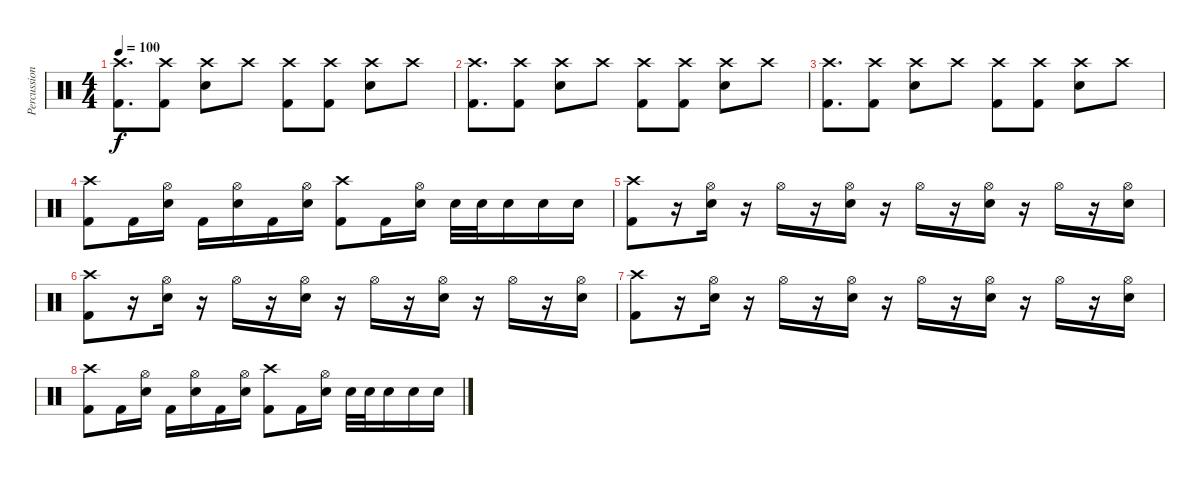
\track ("Percussion" "Percussion") {instrument percussion}
\staff {score}
\articulation defaults
\ts (4 4)
\tempo 100
\clef neutral
\ks c
("Crash high (hit)" "Kick (hit) 2").8{d dy f} ("Crash high (hit)" "Kick (hit) 2").8 ("Crash high (hit)" "Snare (hit) 2").8 "Crash high (hit)".8 ("Crash high (hit)" "Kick (hit) 2").8 ("Crash high (hit)" "Kick (hit) 2").8 ("Crash high (hit)" "Snare (hit) 2").8 "Crash high (hit)".8 |
("Crash high (hit)" "Kick (hit) 2").8{d} ("Crash high (hit)" "Kick (hit) 2").8 ("Crash high (hit)" "Snare (hit) 2").8 "Crash high (hit)".8 ("Crash high (hit)" "Kick (hit) 2").8 ("Crash high (hit)" "Kick (hit) 2").8 ("Crash high (hit)" "Snare (hit) 2").8 "Crash high (hit)".8 |
("Crash high (hit)" "Kick (hit) 2").8{d} ("Crash high (hit)" "Kick (hit) 2").8 ("Crash high (hit)" "Snare (hit) 2").8 "Crash high (hit)".8 ("Crash high (hit)" "Kick (hit) 2").8 ("Crash high (hit)" "Kick (hit) 2").8 ("Crash high (hit)" "Snare (hit) 2").8 "Crash high (hit)".8 |
("Crash high (hit)" "Kick (hit) 2").8 "Kick (hit) 2".16 ("Hi-Hat (open)" "Snare (hit) 2").16 "Kick (hit) 2".16 ("Hi-Hat (open)" "Snare (hit) 2").16 "Kick (hit) 2".16 ("Hi-Hat (open)" "Snare (hit) 2").16 ("Crash high (hit)" "Kick (hit) 2").8 "Kick (hit) 2".16 ("Hi-Hat (open)" "Snare (hit) 2").16 "Snare (hit) 2".32 "Snare (hit) 2".32 "Snare (hit) 2".16 "Snare (hit) 2".16 "Snare (hit) 2".16 |
("Crash high (hit)" "Kick (hit) 2").8 r.16 ("Hi-Hat (open)" "Snare (hit) 2").16 r.16 "Hi-Hat (open)".16 r.16 ("Hi-Hat (open)" "Snare (hit) 2").16 r.16 "Hi-Hat (open)".16 r.16 ("Hi-Hat (open)" "Snare (hit) 2").16 r.16 "Hi-Hat (open)".16 r.16 ("Hi-Hat (open)" "Snare (hit) 2").16 |
("Crash high (hit)" "Kick (hit) 2").8 r.16 ("Hi-Hat (open)" "Snare (hit) 2").16 r.16 "Hi-Hat (open)".16 r.16 ("Hi-Hat (open)" "Snare (hit) 2").16 r.16 "Hi-Hat (open)".16 r.16 ("Hi-Hat (open)" "Snare (hit) 2").16 r.16 "Hi-Hat (open)".16 r.16 ("Hi-Hat (open)" "Snare (hit) 2").16 |
("Crash high (hit)" "Kick (hit) 2").8 r.16 ("Hi-Hat (open)" "Snare (hit) 2").16 r.16 "Hi-Hat (open)".16 r.16 ("Hi-Hat (open)" "Snare (hit) 2").16 r.16 "Hi-Hat (open)".16 r.16 ("Hi-Hat (open)" "Snare (hit) 2").16 r.16 "Hi-Hat (open)".16 r.16 ("Hi-Hat (open)" "Snare (hit) 2").16 |
("Crash high (hit)" "Kick (hit) 2").8 "Kick (hit) 2".16 ("Hi-Hat (open)" "Snare (hit) 2").16 "Kick (hit) 2".16 ("Hi-Hat (open)" "Snare (hit) 2").16 "Kick (hit) 2".16 ("Hi-Hat (open)" "Snare (hit) 2").16 ("Crash high (hit)" "Kick (hit) 2").8 "Kick (hit) 2".16 ("Hi-Hat (open)" "Snare (hit) 2").16 "Snare (hit) 2".32 "Snare (hit) 2".32 "Snare (hit) 2".16 "Snare (hit) 2".16 "Snare (hit) 2".16
